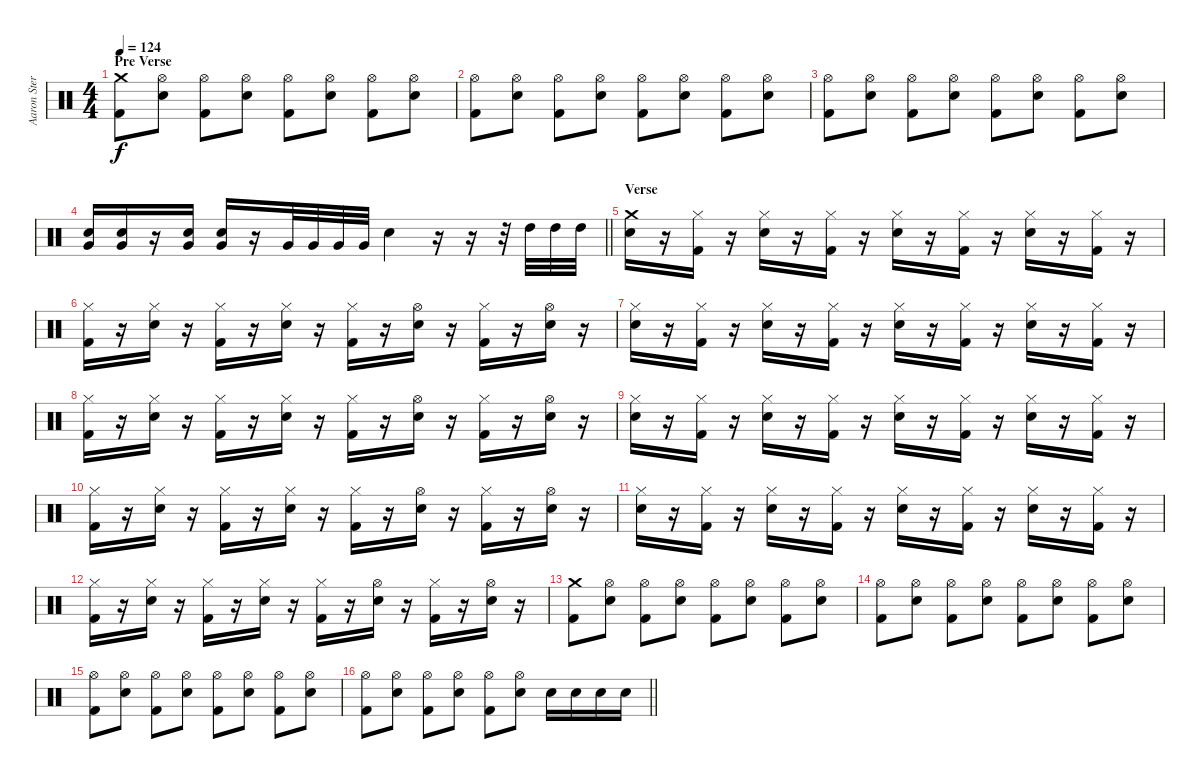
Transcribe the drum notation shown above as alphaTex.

\track ("Aaron Stern" "Aaron Ster") {instrument percussion}
\staff {score}
\articulation defaults
\ts (4 4)
\section ("" "Pre Verse")
\tempo 124
\clef neutral
\ks c
("Crash medium (hit)" "Kick (hit) 2").8{dy f} ("Hi-Hat (open)" "Snare (hit) 2").8 ("Hi-Hat (open)" "Kick (hit) 2").8 ("Hi-Hat (open)" "Snare (hit) 2").8 ("Hi-Hat (open)" "Kick (hit) 2").8 ("Hi-Hat (open)" "Snare (hit) 2").8 ("Hi-Hat (open)" "Kick (hit) 2").8 ("Hi-Hat (open)" "Snare (hit) 2").8 |
("Hi-Hat (open)" "Kick (hit) 2").8 ("Hi-Hat (open)" "Snare (hit) 2").8 ("Hi-Hat (open)" "Kick (hit) 2").8 ("Hi-Hat (open)" "Snare (hit) 2").8 ("Hi-Hat (open)" "Kick (hit) 2").8 ("Hi-Hat (open)" "Snare (hit) 2").8 ("Hi-Hat (open)" "Kick (hit) 2").8 ("Hi-Hat (open)" "Snare (hit) 2").8 |
("Hi-Hat (open)" "Kick (hit) 2").8 ("Hi-Hat (open)" "Snare (hit) 2").8 ("Hi-Hat (open)" "Kick (hit) 2").8 ("Hi-Hat (open)" "Snare (hit) 2").8 ("Hi-Hat (open)" "Kick (hit) 2").8 ("Hi-Hat (open)" "Snare (hit) 2").8 ("Hi-Hat (open)" "Kick (hit) 2").8 ("Hi-Hat (open)" "Snare (hit) 2").8 |
\barLineRight lightlight
("Snare (hit) 2" "Very Low Tom (hit)").16 ("Snare (hit) 2" "Very Low Tom (hit)").16 r.16 ("Snare (hit) 2" "Very Low Tom (hit)").16 ("Snare (hit) 2" "Very Low Tom (hit)").16 r.16 "Very Low Tom (hit)".32 "Very Low Tom (hit)".32 "Very Low Tom (hit)".32 "Very Low Tom (hit)".32 "Snare (hit) 2".4 r.16 r.16 r.32 "High Tom (hit)".32 "High Tom (hit)".32 "High Tom (hit)".32 |
\section ("" "Verse")
("Crash medium (hit)" "Snare (hit) 2").16 r.16 ("Hi-Hat (closed)" "Kick (hit) 2").16 r.16 ("Hi-Hat (closed)" "Snare (hit) 2").16 r.16 ("Hi-Hat (closed)" "Kick (hit) 2").16 r.16 ("Hi-Hat (closed)" "Snare (hit) 2").16 r.16 ("Hi-Hat (closed)" "Kick (hit) 2").16 r.16 ("Hi-Hat (closed)" "Snare (hit) 2").16 r.16 ("Hi-Hat (closed)" "Kick (hit) 2").16 r.16 |
("Hi-Hat (closed)" "Kick (hit) 2").16 r.16 ("Hi-Hat (closed)" "Snare (hit) 2").16 r.16 ("Hi-Hat (closed)" "Kick (hit) 2").16 r.16 ("Hi-Hat (closed)" "Snare (hit) 2").16 r.16 ("Hi-Hat (closed)" "Kick (hit) 2").16 r.16 ("Hi-Hat (open)" "Snare (hit) 2").16 r.16 ("Hi-Hat (closed)" "Kick (hit) 2").16 r.16 ("Hi-Hat (open)" "Snare (hit) 2").16 r.16 |
("Hi-Hat (closed)" "Snare (hit) 2").16 r.16 ("Hi-Hat (closed)" "Kick (hit) 2").16 r.16 ("Hi-Hat (closed)" "Snare (hit) 2").16 r.16 ("Hi-Hat (closed)" "Kick (hit) 2").16 r.16 ("Hi-Hat (closed)" "Snare (hit) 2").16 r.16 ("Hi-Hat (closed)" "Kick (hit) 2").16 r.16 ("Hi-Hat (closed)" "Snare (hit) 2").16 r.16 ("Hi-Hat (closed)" "Kick (hit) 2").16 r.16 |
("Hi-Hat (closed)" "Kick (hit) 2").16 r.16 ("Hi-Hat (closed)" "Snare (hit) 2").16 r.16 ("Hi-Hat (closed)" "Kick (hit) 2").16 r.16 ("Hi-Hat (closed)" "Snare (hit) 2").16 r.16 ("Hi-Hat (closed)" "Kick (hit) 2").16 r.16 ("Hi-Hat (open)" "Snare (hit) 2").16 r.16 ("Hi-Hat (closed)" "Kick (hit) 2").16 r.16 ("Hi-Hat (open)" "Snare (hit) 2").16 r.16 |
("Hi-Hat (closed)" "Snare (hit) 2").16 r.16 ("Hi-Hat (closed)" "Kick (hit) 2").16 r.16 ("Hi-Hat (closed)" "Snare (hit) 2").16 r.16 ("Hi-Hat (closed)" "Kick (hit) 2").16 r.16 ("Hi-Hat (closed)" "Snare (hit) 2").16 r.16 ("Hi-Hat (closed)" "Kick (hit) 2").16 r.16 ("Hi-Hat (closed)" "Snare (hit) 2").16 r.16 ("Hi-Hat (closed)" "Kick (hit) 2").16 r.16 |
("Hi-Hat (closed)" "Kick (hit) 2").16 r.16 ("Hi-Hat (closed)" "Snare (hit) 2").16 r.16 ("Hi-Hat (closed)" "Kick (hit) 2").16 r.16 ("Hi-Hat (closed)" "Snare (hit) 2").16 r.16 ("Hi-Hat (closed)" "Kick (hit) 2").16 r.16 ("Hi-Hat (open)" "Snare (hit) 2").16 r.16 ("Hi-Hat (closed)" "Kick (hit) 2").16 r.16 ("Hi-Hat (open)" "Snare (hit) 2").16 r.16 |
("Hi-Hat (closed)" "Snare (hit) 2").16 r.16 ("Hi-Hat (closed)" "Kick (hit) 2").16 r.16 ("Hi-Hat (closed)" "Snare (hit) 2").16 r.16 ("Hi-Hat (closed)" "Kick (hit) 2").16 r.16 ("Hi-Hat (closed)" "Snare (hit) 2").16 r.16 ("Hi-Hat (closed)" "Kick (hit) 2").16 r.16 ("Hi-Hat (closed)" "Snare (hit) 2").16 r.16 ("Hi-Hat (closed)" "Kick (hit) 2").16 r.16 |
("Hi-Hat (closed)" "Kick (hit) 2").16 r.16 ("Hi-Hat (closed)" "Snare (hit) 2").16 r.16 ("Hi-Hat (closed)" "Kick (hit) 2").16 r.16 ("Hi-Hat (closed)" "Snare (hit) 2").16 r.16 ("Hi-Hat (closed)" "Kick (hit) 2").16 r.16 ("Hi-Hat (open)" "Snare (hit) 2").16 r.16 ("Hi-Hat (closed)" "Kick (hit) 2").16 r.16 ("Hi-Hat (open)" "Snare (hit) 2").16 r.16 |
("Crash medium (hit)" "Kick (hit) 2").8 ("Hi-Hat (open)" "Snare (hit) 2").8 ("Hi-Hat (open)" "Kick (hit) 2").8 ("Hi-Hat (open)" "Snare (hit) 2").8 ("Hi-Hat (open)" "Kick (hit) 2").8 ("Hi-Hat (open)" "Snare (hit) 2").8 ("Hi-Hat (open)" "Kick (hit) 2").8 ("Hi-Hat (open)" "Snare (hit) 2").8 |
("Hi-Hat (open)" "Kick (hit) 2").8 ("Hi-Hat (open)" "Snare (hit) 2").8 ("Hi-Hat (open)" "Kick (hit) 2").8 ("Hi-Hat (open)" "Snare (hit) 2").8 ("Hi-Hat (open)" "Kick (hit) 2").8 ("Hi-Hat (open)" "Snare (hit) 2").8 ("Hi-Hat (open)" "Kick (hit) 2").8 ("Hi-Hat (open)" "Snare (hit) 2").8 |
("Hi-Hat (open)" "Kick (hit) 2").8 ("Hi-Hat (open)" "Snare (hit) 2").8 ("Hi-Hat (open)" "Kick (hit) 2").8 ("Hi-Hat (open)" "Snare (hit) 2").8 ("Hi-Hat (open)" "Kick (hit) 2").8 ("Hi-Hat (open)" "Snare (hit) 2").8 ("Hi-Hat (open)" "Kick (hit) 2").8 ("Hi-Hat (open)" "Snare (hit) 2").8 |
\barLineRight lightlight
("Hi-Hat (open)" "Kick (hit) 2").8 ("Hi-Hat (open)" "Snare (hit) 2").8 ("Hi-Hat (open)" "Kick (hit) 2").8 ("Hi-Hat (open)" "Snare (hit) 2").8 ("Hi-Hat (open)" "Kick (hit) 2").8 ("Hi-Hat (open)" "Snare (hit) 2").8 "Snare (hit) 2".16 "Snare (hit) 2".16 "Snare (hit) 2".16 "Snare (hit) 2".16
